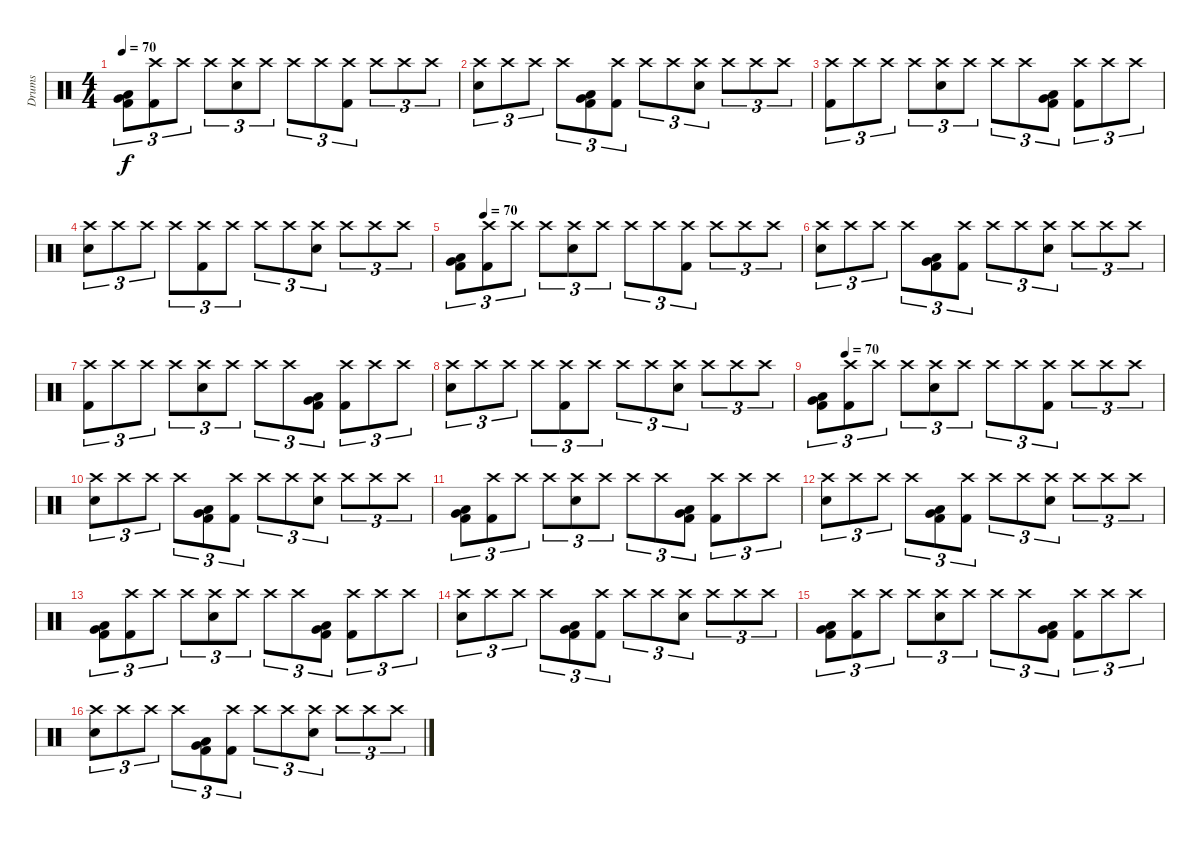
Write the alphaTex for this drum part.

\track ("Drums" "Drums") {instrument percussion}
\staff {score}
\articulation defaults
\ts (4 4)
\tempo 70
\clef neutral
\ks c
("Kick (hit) 2" "Very Low Tom (hit)" "Low Tom (hit)").8{tu (3 2) dy f} ("Crash high (hit)" "Kick (hit) 2").8{tu (3 2)} "Crash high (hit)".8{tu (3 2)} "Crash high (hit)".8{tu (3 2)} ("Crash high (hit)" "Electric Snare (hit)").8{tu (3 2)} "Crash high (hit)".8{tu (3 2)} "Crash high (hit)".8{tu (3 2)} "Crash high (hit)".8{tu (3 2)} ("Crash high (hit)" "Kick (hit) 2").8{tu (3 2)} "Crash high (hit)".8{tu (3 2)} "Crash high (hit)".8{tu (3 2)} "Crash high (hit)".8{tu (3 2)} |
("Crash high (hit)" "Electric Snare (hit)").8{tu (3 2)} "Crash high (hit)".8{tu (3 2)} "Crash high (hit)".8{tu (3 2)} "Crash high (hit)".8{tu (3 2)} ("Kick (hit) 2" "Very Low Tom (hit)" "Low Tom (hit)").8{tu (3 2)} ("Crash high (hit)" "Kick (hit) 2").8{tu (3 2)} "Crash high (hit)".8{tu (3 2)} "Crash high (hit)".8{tu (3 2)} ("Crash high (hit)" "Electric Snare (hit)").8{tu (3 2)} "Crash high (hit)".8{tu (3 2)} "Crash high (hit)".8{tu (3 2)} "Crash high (hit)".8{tu (3 2)} |
("Crash high (hit)" "Kick (hit) 2").8{tu (3 2)} "Crash high (hit)".8{tu (3 2)} "Crash high (hit)".8{tu (3 2)} "Crash high (hit)".8{tu (3 2)} ("Crash high (hit)" "Electric Snare (hit)").8{tu (3 2)} "Crash high (hit)".8{tu (3 2)} "Crash high (hit)".8{tu (3 2)} "Crash high (hit)".8{tu (3 2)} ("Kick (hit) 2" "Low Tom (hit)" "Very Low Tom (hit)").8{tu (3 2)} ("Crash high (hit)" "Kick (hit) 2").8{tu (3 2)} "Crash high (hit)".8{tu (3 2)} "Crash high (hit)".8{tu (3 2)} |
("Crash high (hit)" "Electric Snare (hit)").8{tu (3 2)} "Crash high (hit)".8{tu (3 2)} "Crash high (hit)".8{tu (3 2)} "Crash high (hit)".8{tu (3 2)} ("Crash high (hit)" "Kick (hit) 2").8{tu (3 2)} "Crash high (hit)".8{tu (3 2)} "Crash high (hit)".8{tu (3 2)} "Crash high (hit)".8{tu (3 2)} ("Crash high (hit)" "Electric Snare (hit)").8{tu (3 2)} "Crash high (hit)".8{tu (3 2)} "Crash high (hit)".8{tu (3 2)} "Crash high (hit)".8{tu (3 2)} |
\tempo (70 0.08333333333333333)
("Kick (hit) 2" "Very Low Tom (hit)" "Low Tom (hit)").8{tu (3 2)} ("Crash high (hit)" "Kick (hit) 2").8{tu (3 2)} "Crash high (hit)".8{tu (3 2)} "Crash high (hit)".8{tu (3 2)} ("Crash high (hit)" "Electric Snare (hit)").8{tu (3 2)} "Crash high (hit)".8{tu (3 2)} "Crash high (hit)".8{tu (3 2)} "Crash high (hit)".8{tu (3 2)} ("Crash high (hit)" "Kick (hit) 2").8{tu (3 2)} "Crash high (hit)".8{tu (3 2)} "Crash high (hit)".8{tu (3 2)} "Crash high (hit)".8{tu (3 2)} |
("Crash high (hit)" "Electric Snare (hit)").8{tu (3 2)} "Crash high (hit)".8{tu (3 2)} "Crash high (hit)".8{tu (3 2)} "Crash high (hit)".8{tu (3 2)} ("Kick (hit) 2" "Very Low Tom (hit)" "Low Tom (hit)").8{tu (3 2)} ("Crash high (hit)" "Kick (hit) 2").8{tu (3 2)} "Crash high (hit)".8{tu (3 2)} "Crash high (hit)".8{tu (3 2)} ("Crash high (hit)" "Electric Snare (hit)").8{tu (3 2)} "Crash high (hit)".8{tu (3 2)} "Crash high (hit)".8{tu (3 2)} "Crash high (hit)".8{tu (3 2)} |
("Crash high (hit)" "Kick (hit) 2").8{tu (3 2)} "Crash high (hit)".8{tu (3 2)} "Crash high (hit)".8{tu (3 2)} "Crash high (hit)".8{tu (3 2)} ("Crash high (hit)" "Electric Snare (hit)").8{tu (3 2)} "Crash high (hit)".8{tu (3 2)} "Crash high (hit)".8{tu (3 2)} "Crash high (hit)".8{tu (3 2)} ("Kick (hit) 2" "Low Tom (hit)" "Very Low Tom (hit)").8{tu (3 2)} ("Crash high (hit)" "Kick (hit) 2").8{tu (3 2)} "Crash high (hit)".8{tu (3 2)} "Crash high (hit)".8{tu (3 2)} |
("Crash high (hit)" "Electric Snare (hit)").8{tu (3 2)} "Crash high (hit)".8{tu (3 2)} "Crash high (hit)".8{tu (3 2)} "Crash high (hit)".8{tu (3 2)} ("Crash high (hit)" "Kick (hit) 2").8{tu (3 2)} "Crash high (hit)".8{tu (3 2)} "Crash high (hit)".8{tu (3 2)} "Crash high (hit)".8{tu (3 2)} ("Crash high (hit)" "Electric Snare (hit)").8{tu (3 2)} "Crash high (hit)".8{tu (3 2)} "Crash high (hit)".8{tu (3 2)} "Crash high (hit)".8{tu (3 2)} |
\tempo (70 0.08333333333333333)
("Kick (hit) 2" "Very Low Tom (hit)" "Low Tom (hit)").8{tu (3 2)} ("Crash high (hit)" "Kick (hit) 2").8{tu (3 2)} "Crash high (hit)".8{tu (3 2)} "Crash high (hit)".8{tu (3 2)} ("Crash high (hit)" "Electric Snare (hit)").8{tu (3 2)} "Crash high (hit)".8{tu (3 2)} "Crash high (hit)".8{tu (3 2)} "Crash high (hit)".8{tu (3 2)} ("Crash high (hit)" "Kick (hit) 2").8{tu (3 2)} "Crash high (hit)".8{tu (3 2)} "Crash high (hit)".8{tu (3 2)} "Crash high (hit)".8{tu (3 2)} |
("Crash high (hit)" "Electric Snare (hit)").8{tu (3 2)} "Crash high (hit)".8{tu (3 2)} "Crash high (hit)".8{tu (3 2)} "Crash high (hit)".8{tu (3 2)} ("Kick (hit) 2" "Very Low Tom (hit)" "Low Tom (hit)").8{tu (3 2)} ("Crash high (hit)" "Kick (hit) 2").8{tu (3 2)} "Crash high (hit)".8{tu (3 2)} "Crash high (hit)".8{tu (3 2)} ("Crash high (hit)" "Electric Snare (hit)").8{tu (3 2)} "Crash high (hit)".8{tu (3 2)} "Crash high (hit)".8{tu (3 2)} "Crash high (hit)".8{tu (3 2)} |
("Kick (hit) 2" "Very Low Tom (hit)" "Low Tom (hit)").8{tu (3 2)} ("Crash high (hit)" "Kick (hit) 2").8{tu (3 2)} "Crash high (hit)".8{tu (3 2)} "Crash high (hit)".8{tu (3 2)} ("Crash high (hit)" "Electric Snare (hit)").8{tu (3 2)} "Crash high (hit)".8{tu (3 2)} "Crash high (hit)".8{tu (3 2)} "Crash high (hit)".8{tu (3 2)} ("Low Tom (hit)" "Kick (hit) 2" "Very Low Tom (hit)").8{tu (3 2)} ("Crash high (hit)" "Kick (hit) 2").8{tu (3 2)} "Crash high (hit)".8{tu (3 2)} "Crash high (hit)".8{tu (3 2)} |
("Crash high (hit)" "Electric Snare (hit)").8{tu (3 2)} "Crash high (hit)".8{tu (3 2)} "Crash high (hit)".8{tu (3 2)} "Crash high (hit)".8{tu (3 2)} ("Low Tom (hit)" "Very Low Tom (hit)" "Kick (hit) 2").8{tu (3 2)} ("Crash high (hit)" "Kick (hit) 2").8{tu (3 2)} "Crash high (hit)".8{tu (3 2)} "Crash high (hit)".8{tu (3 2)} ("Crash high (hit)" "Electric Snare (hit)").8{tu (3 2)} "Crash high (hit)".8{tu (3 2)} "Crash high (hit)".8{tu (3 2)} "Crash high (hit)".8{tu (3 2)} |
("Kick (hit) 2" "Very Low Tom (hit)" "Low Tom (hit)").8{tu (3 2)} ("Crash high (hit)" "Kick (hit) 2").8{tu (3 2)} "Crash high (hit)".8{tu (3 2)} "Crash high (hit)".8{tu (3 2)} ("Crash high (hit)" "Electric Snare (hit)").8{tu (3 2)} "Crash high (hit)".8{tu (3 2)} "Crash high (hit)".8{tu (3 2)} "Crash high (hit)".8{tu (3 2)} ("Low Tom (hit)" "Kick (hit) 2" "Very Low Tom (hit)").8{tu (3 2)} ("Crash high (hit)" "Kick (hit) 2").8{tu (3 2)} "Crash high (hit)".8{tu (3 2)} "Crash high (hit)".8{tu (3 2)} |
("Crash high (hit)" "Electric Snare (hit)").8{tu (3 2)} "Crash high (hit)".8{tu (3 2)} "Crash high (hit)".8{tu (3 2)} "Crash high (hit)".8{tu (3 2)} ("Low Tom (hit)" "Very Low Tom (hit)" "Kick (hit) 2").8{tu (3 2)} ("Crash high (hit)" "Kick (hit) 2").8{tu (3 2)} "Crash high (hit)".8{tu (3 2)} "Crash high (hit)".8{tu (3 2)} ("Crash high (hit)" "Electric Snare (hit)").8{tu (3 2)} "Crash high (hit)".8{tu (3 2)} "Crash high (hit)".8{tu (3 2)} "Crash high (hit)".8{tu (3 2)} |
("Kick (hit) 2" "Very Low Tom (hit)" "Low Tom (hit)").8{tu (3 2)} ("Crash high (hit)" "Kick (hit) 2").8{tu (3 2)} "Crash high (hit)".8{tu (3 2)} "Crash high (hit)".8{tu (3 2)} ("Crash high (hit)" "Electric Snare (hit)").8{tu (3 2)} "Crash high (hit)".8{tu (3 2)} "Crash high (hit)".8{tu (3 2)} "Crash high (hit)".8{tu (3 2)} ("Low Tom (hit)" "Kick (hit) 2" "Very Low Tom (hit)").8{tu (3 2)} ("Crash high (hit)" "Kick (hit) 2").8{tu (3 2)} "Crash high (hit)".8{tu (3 2)} "Crash high (hit)".8{tu (3 2)} |
("Crash high (hit)" "Electric Snare (hit)").8{tu (3 2)} "Crash high (hit)".8{tu (3 2)} "Crash high (hit)".8{tu (3 2)} "Crash high (hit)".8{tu (3 2)} ("Low Tom (hit)" "Very Low Tom (hit)" "Kick (hit) 2").8{tu (3 2)} ("Crash high (hit)" "Kick (hit) 2").8{tu (3 2)} "Crash high (hit)".8{tu (3 2)} "Crash high (hit)".8{tu (3 2)} ("Crash high (hit)" "Electric Snare (hit)").8{tu (3 2)} "Crash high (hit)".8{tu (3 2)} "Crash high (hit)".8{tu (3 2)} "Crash high (hit)".8{tu (3 2)}
